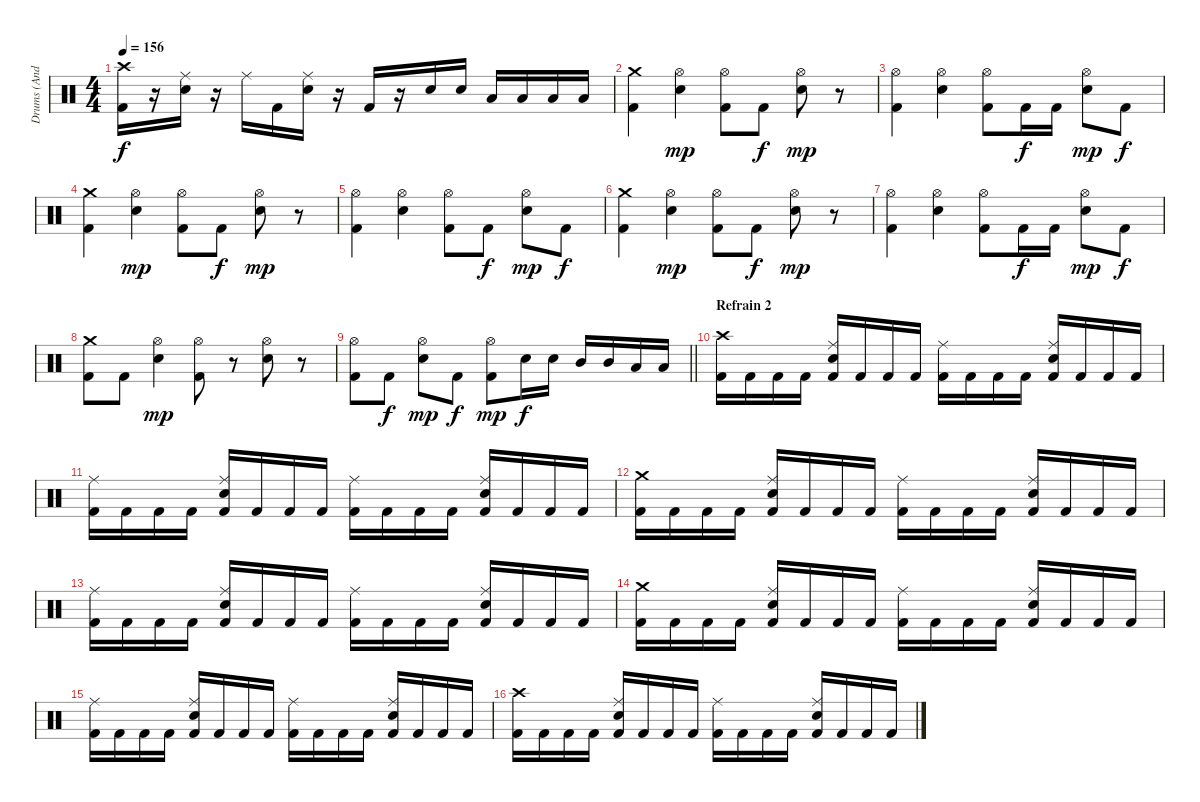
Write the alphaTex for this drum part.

\track ("Drums (Andy C)" "Drums (And") {instrument percussion}
\staff
\articulation defaults
\ts (4 4)
\tempo 156
\clef neutral
\ks c
("Crash high (hit)" "Kick (hit) 2").16{dy f} r.16 ("Ride (middle)" "Electric Snare (hit)").16 r.16 "Ride (middle)".16 "Kick (hit) 2".16 ("Ride (middle)" "Electric Snare (hit)").16 r.16 "Kick (hit) 2".16 r.16 "Electric Snare (hit)".16 "Electric Snare (hit)".16 "Low Tom (hit)".16 "Low Tom (hit)".16 "Low Floor Tom (hit)".16 "Low Floor Tom (hit)".16 |
("Crash medium (hit)" "Kick (hit) 2").4 ("Hi-Hat (open)" "Electric Snare (hit)").4{dy mp} ("Hi-Hat (open)" "Kick (hit) 2").8 "Kick (hit) 2".8{dy f} ("Hi-Hat (open)" "Electric Snare (hit)").8{dy mp} r.8 |
("Hi-Hat (open)" "Kick (hit) 2").4 ("Hi-Hat (open)" "Electric Snare (hit)").4 ("Hi-Hat (open)" "Kick (hit) 2").8 "Kick (hit) 2".16{dy f} "Kick (hit) 2".16 ("Hi-Hat (open)" "Electric Snare (hit)").8{dy mp} "Kick (hit) 2".8{dy f} |
("Crash medium (hit)" "Kick (hit) 2").4 ("Hi-Hat (open)" "Electric Snare (hit)").4{dy mp} ("Hi-Hat (open)" "Kick (hit) 2").8 "Kick (hit) 2".8{dy f} ("Hi-Hat (open)" "Electric Snare (hit)").8{dy mp} r.8 |
("Hi-Hat (open)" "Kick (hit) 2").4 ("Hi-Hat (open)" "Electric Snare (hit)").4 ("Hi-Hat (open)" "Kick (hit) 2").8 "Kick (hit) 2".8{dy f} ("Hi-Hat (open)" "Electric Snare (hit)").8{dy mp} "Kick (hit) 2".8{dy f} |
("Crash medium (hit)" "Kick (hit) 2").4 ("Hi-Hat (open)" "Electric Snare (hit)").4{dy mp} ("Hi-Hat (open)" "Kick (hit) 2").8 "Kick (hit) 2".8{dy f} ("Hi-Hat (open)" "Electric Snare (hit)").8{dy mp} r.8 |
("Hi-Hat (open)" "Kick (hit) 2").4 ("Hi-Hat (open)" "Electric Snare (hit)").4 ("Hi-Hat (open)" "Kick (hit) 2").8 "Kick (hit) 2".16{dy f} "Kick (hit) 2".16 ("Hi-Hat (open)" "Electric Snare (hit)").8{dy mp} "Kick (hit) 2".8{dy f} |
("Crash medium (hit)" "Kick (hit) 2").8 "Kick (hit) 2".8 ("Hi-Hat (open)" "Electric Snare (hit)").4{dy mp} ("Hi-Hat (open)" "Kick (hit) 2").8 r.8 ("Hi-Hat (open)" "Electric Snare (hit)").8 r.8 |
\barLineRight lightlight
("Hi-Hat (open)" "Kick (hit) 2").8 "Kick (hit) 2".8{dy f} ("Hi-Hat (open)" "Electric Snare (hit)").8{dy mp} "Kick (hit) 2".8{dy f} ("Hi-Hat (open)" "Kick (hit) 2").8{dy mp} "Electric Snare (hit)".16{dy f} "Electric Snare (hit)".16 "Mid Tom (hit)".16 "Mid Tom (hit)".16 "Low Tom (hit)".16 "Low Tom (hit)".16 |
\section ("" "Refrain 2")
("Crash high (hit)" "Kick (hit) 2").16 "Kick (hit) 2".16 "Kick (hit) 2".16 "Kick (hit) 2".16 ("Ride (middle)" "Kick (hit) 2" "Electric Snare (hit)").16 "Kick (hit) 2".16 "Kick (hit) 2".16 "Kick (hit) 2".16 ("Ride (middle)" "Kick (hit) 2").16 "Kick (hit) 2".16 "Kick (hit) 2".16 "Kick (hit) 2".16 ("Ride (middle)" "Kick (hit) 2" "Electric Snare (hit)").16 "Kick (hit) 2".16 "Kick (hit) 2".16 "Kick (hit) 2".16 |
("Ride (middle)" "Kick (hit) 2").16 "Kick (hit) 2".16 "Kick (hit) 2".16 "Kick (hit) 2".16 ("Ride (middle)" "Kick (hit) 2" "Electric Snare (hit)").16 "Kick (hit) 2".16 "Kick (hit) 2".16 "Kick (hit) 2".16 ("Ride (middle)" "Kick (hit) 2").16 "Kick (hit) 2".16 "Kick (hit) 2".16 "Kick (hit) 2".16 ("Ride (middle)" "Kick (hit) 2" "Electric Snare (hit)").16 "Kick (hit) 2".16 "Kick (hit) 2".16 "Kick (hit) 2".16 |
("Crash medium (hit)" "Kick (hit) 2").16 "Kick (hit) 2".16 "Kick (hit) 2".16 "Kick (hit) 2".16 ("Ride (middle)" "Kick (hit) 2" "Electric Snare (hit)").16 "Kick (hit) 2".16 "Kick (hit) 2".16 "Kick (hit) 2".16 ("Ride (middle)" "Kick (hit) 2").16 "Kick (hit) 2".16 "Kick (hit) 2".16 "Kick (hit) 2".16 ("Ride (middle)" "Kick (hit) 2" "Electric Snare (hit)").16 "Kick (hit) 2".16 "Kick (hit) 2".16 "Kick (hit) 2".16 |
("Ride (middle)" "Kick (hit) 2").16 "Kick (hit) 2".16 "Kick (hit) 2".16 "Kick (hit) 2".16 ("Ride (middle)" "Kick (hit) 2" "Electric Snare (hit)").16 "Kick (hit) 2".16 "Kick (hit) 2".16 "Kick (hit) 2".16 ("Ride (middle)" "Kick (hit) 2").16 "Kick (hit) 2".16 "Kick (hit) 2".16 "Kick (hit) 2".16 ("Ride (middle)" "Kick (hit) 2" "Electric Snare (hit)").16 "Kick (hit) 2".16 "Kick (hit) 2".16 "Kick (hit) 2".16 |
("Crash medium (hit)" "Kick (hit) 2").16 "Kick (hit) 2".16 "Kick (hit) 2".16 "Kick (hit) 2".16 ("Ride (middle)" "Kick (hit) 2" "Electric Snare (hit)").16 "Kick (hit) 2".16 "Kick (hit) 2".16 "Kick (hit) 2".16 ("Ride (middle)" "Kick (hit) 2").16 "Kick (hit) 2".16 "Kick (hit) 2".16 "Kick (hit) 2".16 ("Ride (middle)" "Kick (hit) 2" "Electric Snare (hit)").16 "Kick (hit) 2".16 "Kick (hit) 2".16 "Kick (hit) 2".16 |
("Ride (middle)" "Kick (hit) 2").16 "Kick (hit) 2".16 "Kick (hit) 2".16 "Kick (hit) 2".16 ("Ride (middle)" "Kick (hit) 2" "Electric Snare (hit)").16 "Kick (hit) 2".16 "Kick (hit) 2".16 "Kick (hit) 2".16 ("Ride (middle)" "Kick (hit) 2").16 "Kick (hit) 2".16 "Kick (hit) 2".16 "Kick (hit) 2".16 ("Ride (middle)" "Kick (hit) 2" "Electric Snare (hit)").16 "Kick (hit) 2".16 "Kick (hit) 2".16 "Kick (hit) 2".16 |
("Crash high (hit)" "Kick (hit) 2").16 "Kick (hit) 2".16 "Kick (hit) 2".16 "Kick (hit) 2".16 ("Ride (middle)" "Kick (hit) 2" "Electric Snare (hit)").16 "Kick (hit) 2".16 "Kick (hit) 2".16 "Kick (hit) 2".16 ("Ride (middle)" "Kick (hit) 2").16 "Kick (hit) 2".16 "Kick (hit) 2".16 "Kick (hit) 2".16 ("Ride (middle)" "Kick (hit) 2" "Electric Snare (hit)").16 "Kick (hit) 2".16 "Kick (hit) 2".16 "Kick (hit) 2".16
